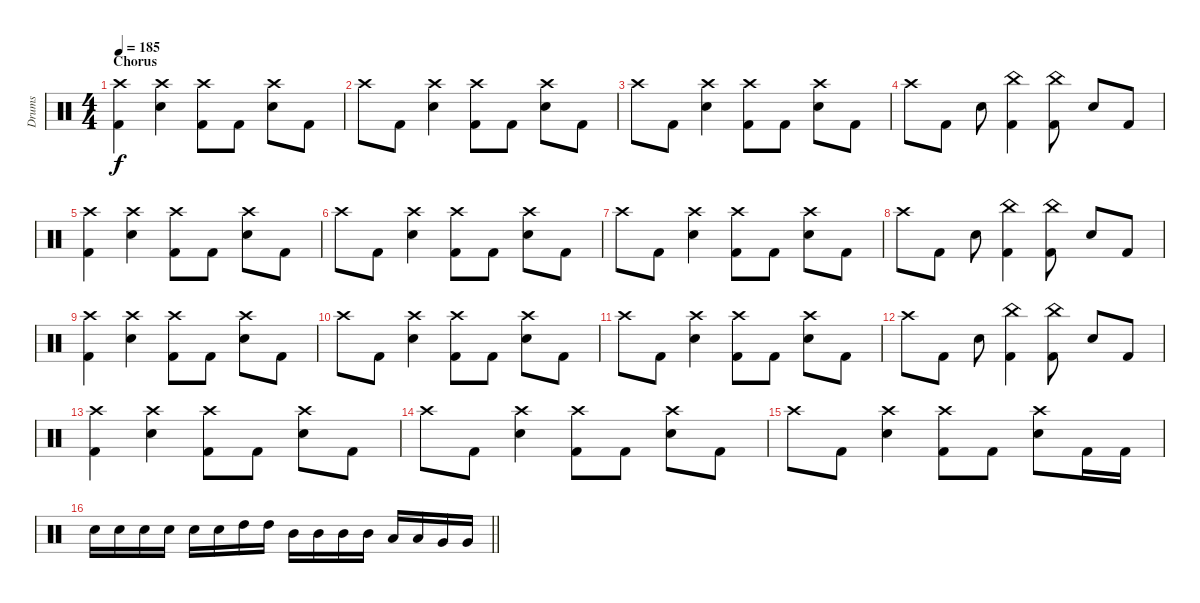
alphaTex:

\track ("Drums" "Drums") {instrument percussion}
\staff {score}
\articulation defaults
\ts (4 4)
\section ("" "Chorus")
\tempo 185
\clef neutral
\ks c
("Crash high (hit)" "Kick (hit) 2").4{dy f} ("Crash high (hit)" "Electric Snare (hit)").4 ("Crash high (hit)" "Kick (hit) 2").8 "Kick (hit) 2".8 ("Crash high (hit)" "Electric Snare (hit)").8 "Kick (hit) 2".8 |
"Crash high (hit)".8 "Kick (hit) 2".8 ("Crash high (hit)" "Electric Snare (hit)").4 ("Crash high (hit)" "Kick (hit) 2").8 "Kick (hit) 2".8 ("Crash high (hit)" "Electric Snare (hit)").8 "Kick (hit) 2".8 |
"Crash high (hit)".8 "Kick (hit) 2".8 ("Crash high (hit)" "Electric Snare (hit)").4 ("Crash high (hit)" "Kick (hit) 2").8 "Kick (hit) 2".8 ("Crash high (hit)" "Electric Snare (hit)").8 "Kick (hit) 2".8 |
"Crash high (hit)".8 "Kick (hit) 2".8 "Electric Snare (hit)".8 ("China (hit)" "Kick (hit) 2").4 ("China (hit)" "Kick (hit) 2").8 "Electric Snare (hit)".8 "Kick (hit) 2".8 |
("Crash high (hit)" "Kick (hit) 2").4 ("Crash high (hit)" "Electric Snare (hit)").4 ("Crash high (hit)" "Kick (hit) 2").8 "Kick (hit) 2".8 ("Crash high (hit)" "Electric Snare (hit)").8 "Kick (hit) 2".8 |
"Crash high (hit)".8 "Kick (hit) 2".8 ("Crash high (hit)" "Electric Snare (hit)").4 ("Crash high (hit)" "Kick (hit) 2").8 "Kick (hit) 2".8 ("Crash high (hit)" "Electric Snare (hit)").8 "Kick (hit) 2".8 |
"Crash high (hit)".8 "Kick (hit) 2".8 ("Crash high (hit)" "Electric Snare (hit)").4 ("Crash high (hit)" "Kick (hit) 2").8 "Kick (hit) 2".8 ("Crash high (hit)" "Electric Snare (hit)").8 "Kick (hit) 2".8 |
"Crash high (hit)".8 "Kick (hit) 2".8 "Electric Snare (hit)".8 ("China (hit)" "Kick (hit) 2").4 ("China (hit)" "Kick (hit) 2").8 "Electric Snare (hit)".8 "Kick (hit) 2".8 |
("Crash high (hit)" "Kick (hit) 2").4 ("Crash high (hit)" "Electric Snare (hit)").4 ("Crash high (hit)" "Kick (hit) 2").8 "Kick (hit) 2".8 ("Crash high (hit)" "Electric Snare (hit)").8 "Kick (hit) 2".8 |
"Crash high (hit)".8 "Kick (hit) 2".8 ("Crash high (hit)" "Electric Snare (hit)").4 ("Crash high (hit)" "Kick (hit) 2").8 "Kick (hit) 2".8 ("Crash high (hit)" "Electric Snare (hit)").8 "Kick (hit) 2".8 |
"Crash high (hit)".8 "Kick (hit) 2".8 ("Crash high (hit)" "Electric Snare (hit)").4 ("Crash high (hit)" "Kick (hit) 2").8 "Kick (hit) 2".8 ("Crash high (hit)" "Electric Snare (hit)").8 "Kick (hit) 2".8 |
"Crash high (hit)".8 "Kick (hit) 2".8 "Electric Snare (hit)".8 ("China (hit)" "Kick (hit) 2").4 ("China (hit)" "Kick (hit) 2").8 "Electric Snare (hit)".8 "Kick (hit) 2".8 |
("Crash high (hit)" "Kick (hit) 2").4 ("Crash high (hit)" "Electric Snare (hit)").4 ("Crash high (hit)" "Kick (hit) 2").8 "Kick (hit) 2".8 ("Crash high (hit)" "Electric Snare (hit)").8 "Kick (hit) 2".8 |
"Crash high (hit)".8 "Kick (hit) 2".8 ("Crash high (hit)" "Electric Snare (hit)").4 ("Crash high (hit)" "Kick (hit) 2").8 "Kick (hit) 2".8 ("Crash high (hit)" "Electric Snare (hit)").8 "Kick (hit) 2".8 |
"Crash high (hit)".8 "Kick (hit) 2".8 ("Crash high (hit)" "Electric Snare (hit)").4 ("Crash high (hit)" "Kick (hit) 2").8 "Kick (hit) 2".8 ("Crash high (hit)" "Electric Snare (hit)").8 "Kick (hit) 2".16 "Kick (hit) 2".16 |
\barLineRight lightlight "Electric Snare (hit)".16 "Electric Snare (hit)".16 "Electric Snare (hit)".16 "Electric Snare (hit)".16 "Electric Snare (hit)".16 "Electric Snare (hit)".16 "High Tom (hit)".16 "High Tom (hit)".16 "Mid Tom (hit)".16 "Mid Tom (hit)".16 "Mid Tom (hit)".16 "Mid Tom (hit)".16 "Low Tom (hit)".16 "Low Tom (hit)".16 "Very Low Tom (hit)".16 "Very Low Tom (hit)".16
